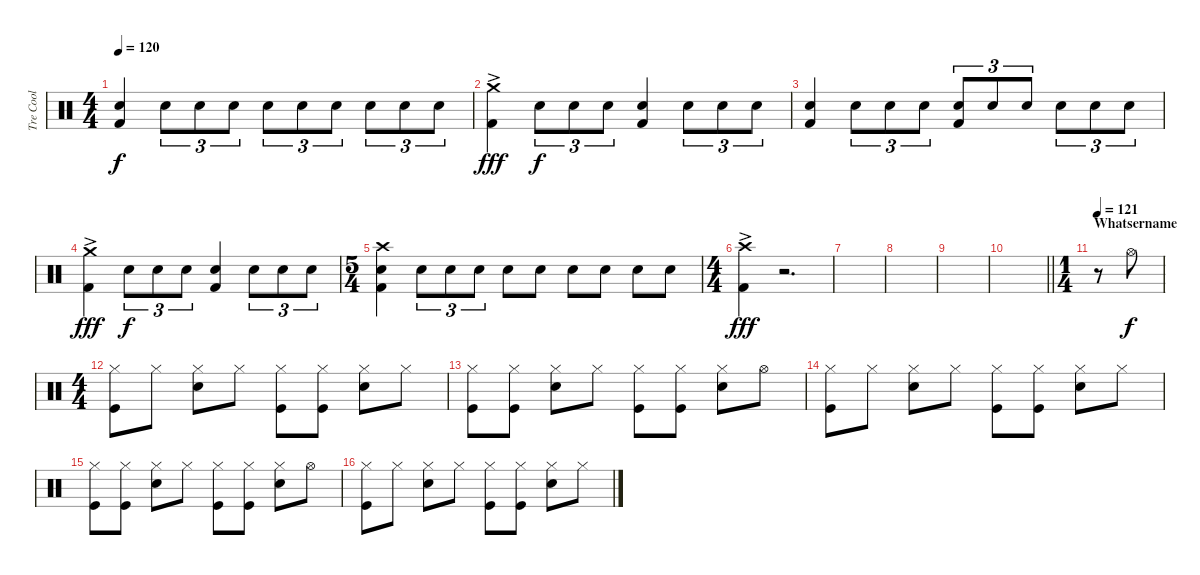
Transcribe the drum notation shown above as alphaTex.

\track ("Tre Cool" "Tre Cool") {instrument percussion}
\staff {score}
\articulation defaults
\ts (4 4)
\tempo 120
\clef neutral
\ks c
("Electric Snare (hit)" "Kick (hit) 2").4{dy f} "Electric Snare (hit)".8{tu (3 2)} "Electric Snare (hit)".8{tu (3 2)} "Electric Snare (hit)".8{tu (3 2)} "Electric Snare (hit)".8{tu (3 2)} "Electric Snare (hit)".8{tu (3 2)} "Electric Snare (hit)".8{tu (3 2)} "Electric Snare (hit)".8{tu (3 2)} "Electric Snare (hit)".8{tu (3 2)} "Electric Snare (hit)".8{tu (3 2)} |
("Crash medium (hit)" "Kick (hit) 2"{ac}).4{dy fff} "Electric Snare (hit)".8{tu (3 2) dy f} "Electric Snare (hit)".8{tu (3 2)} "Electric Snare (hit)".8{tu (3 2)} ("Electric Snare (hit)" "Kick (hit) 2").4 "Electric Snare (hit)".8{tu (3 2)} "Electric Snare (hit)".8{tu (3 2)} "Electric Snare (hit)".8{tu (3 2)} |
("Electric Snare (hit)" "Kick (hit) 2").4 "Electric Snare (hit)".8{tu (3 2)} "Electric Snare (hit)".8{tu (3 2)} "Electric Snare (hit)".8{tu (3 2)} ("Electric Snare (hit)" "Kick (hit) 2").8{tu (3 2)} "Electric Snare (hit)".8{tu (3 2)} "Electric Snare (hit)".8{tu (3 2)} "Electric Snare (hit)".8{tu (3 2)} "Electric Snare (hit)".8{tu (3 2)} "Electric Snare (hit)".8{tu (3 2)} |
("Crash medium (hit)" "Kick (hit) 2"{ac}).4{dy fff} "Electric Snare (hit)".8{tu (3 2) dy f} "Electric Snare (hit)".8{tu (3 2)} "Electric Snare (hit)".8{tu (3 2)} ("Electric Snare (hit)" "Kick (hit) 2").4 "Electric Snare (hit)".8{tu (3 2)} "Electric Snare (hit)".8{tu (3 2)} "Electric Snare (hit)".8{tu (3 2)} |
\ts (5 4)
("Crash high (hit)" "Electric Snare (hit)" "Kick (hit) 2").4 "Electric Snare (hit)".8{tu (3 2)} "Electric Snare (hit)".8{tu (3 2)} "Electric Snare (hit)".8{tu (3 2)} "Electric Snare (hit)".8 "Electric Snare (hit)".8 "Electric Snare (hit)".8 "Electric Snare (hit)".8 "Electric Snare (hit)".8 "Electric Snare (hit)".8 |
\ts (4 4)
("Crash high (hit)"{ac} "Kick (hit) 2"{ac}).4{dy fff} r.2{d} |
|
|
|
\barLineRight lightlight
|
\ts (1 4)
\section ("" "Whatsername")
\tempo 121
r.8 "Hi-Hat (open)".8{dy f} |
\ts (4 4)
("Hi-Hat (closed)" "Kick (hit)").8 "Hi-Hat (closed)".8 ("Hi-Hat (closed)" "Snare (hit) 2").8 "Hi-Hat (closed)".8 ("Hi-Hat (closed)" "Kick (hit)").8 ("Hi-Hat (closed)" "Kick (hit)").8 ("Hi-Hat (closed)" "Snare (hit) 2").8 "Hi-Hat (closed)".8 |
("Hi-Hat (closed)" "Kick (hit)").8 ("Hi-Hat (closed)" "Kick (hit)").8 ("Hi-Hat (closed)" "Snare (hit) 2").8 "Hi-Hat (closed)".8 ("Hi-Hat (closed)" "Kick (hit)").8 ("Hi-Hat (closed)" "Kick (hit)").8 ("Hi-Hat (closed)" "Snare (hit) 2").8 "Hi-Hat (open)".8 |
("Hi-Hat (closed)" "Kick (hit)").8 "Hi-Hat (closed)".8 ("Hi-Hat (closed)" "Snare (hit) 2").8 "Hi-Hat (closed)".8 ("Hi-Hat (closed)" "Kick (hit)").8 ("Hi-Hat (closed)" "Kick (hit)").8 ("Hi-Hat (closed)" "Snare (hit) 2").8 "Hi-Hat (closed)".8 |
("Hi-Hat (closed)" "Kick (hit)").8 ("Hi-Hat (closed)" "Kick (hit)").8 ("Hi-Hat (closed)" "Snare (hit) 2").8 "Hi-Hat (closed)".8 ("Hi-Hat (closed)" "Kick (hit)").8 ("Hi-Hat (closed)" "Kick (hit)").8 ("Hi-Hat (closed)" "Snare (hit) 2").8 "Hi-Hat (open)".8 |
("Hi-Hat (closed)" "Kick (hit)").8 "Hi-Hat (closed)".8 ("Hi-Hat (closed)" "Snare (hit) 2").8 "Hi-Hat (closed)".8 ("Hi-Hat (closed)" "Kick (hit)").8 ("Hi-Hat (closed)" "Kick (hit)").8 ("Hi-Hat (closed)" "Snare (hit) 2").8 "Hi-Hat (closed)".8
